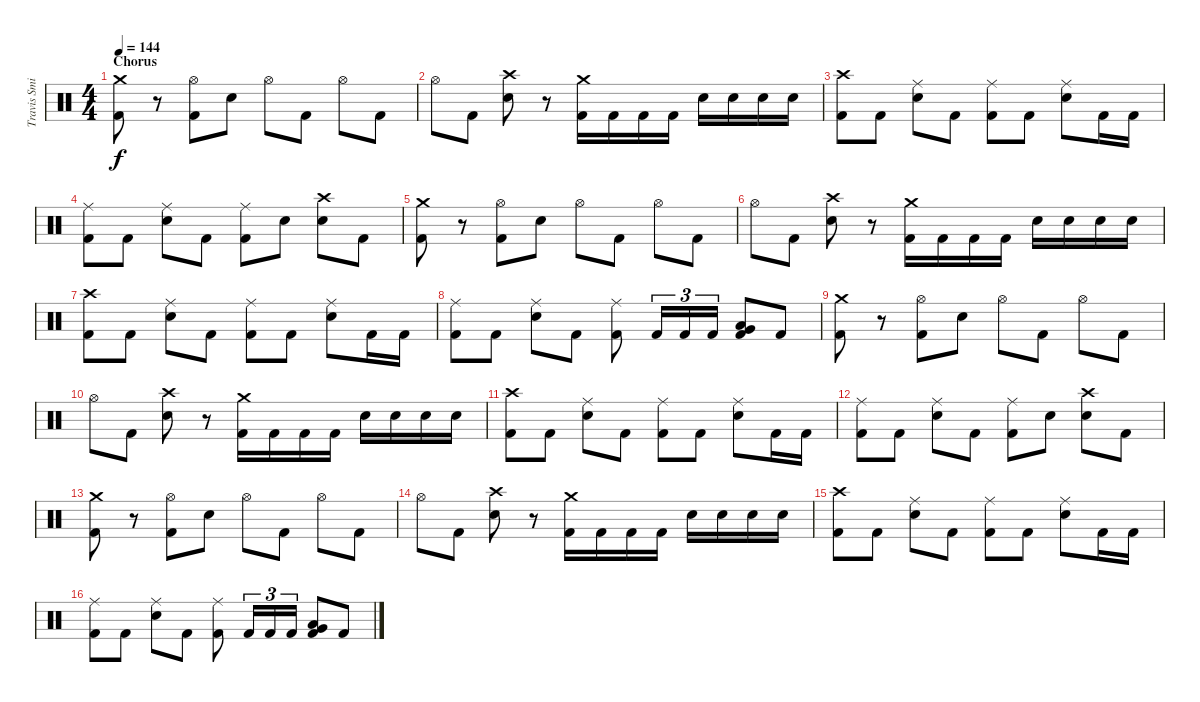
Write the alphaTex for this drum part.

\track ("Travis Smith" "Travis Smi") {instrument percussion}
\staff {score}
\articulation defaults
\ts (4 4)
\section ("" "Chorus")
\tempo 144
\clef neutral
\ks c
("Crash medium (hit)" "Kick (hit) 2").8{dy f} r.8 ("Hi-Hat (open)" "Kick (hit) 2").8 "Electric Snare (hit)".8 "Hi-Hat (open)".8 "Kick (hit) 2".8 "Hi-Hat (open)".8 "Kick (hit) 2".8 |
"Hi-Hat (open)".8 "Kick (hit) 2".8 ("Crash high (hit)" "Electric Snare (hit)").8 r.8 ("Crash medium (hit)" "Kick (hit) 2").16 "Kick (hit) 2".16 "Kick (hit) 2".16 "Kick (hit) 2".16 "Electric Snare (hit)".16 "Electric Snare (hit)".16 "Electric Snare (hit)".16 "Electric Snare (hit)".16 |
("Crash high (hit)" "Kick (hit) 2").8 "Kick (hit) 2".8 ("Ride (middle)" "Electric Snare (hit)").8 "Kick (hit) 2".8 ("Ride (middle)" "Kick (hit) 2").8 "Kick (hit) 2".8 ("Ride (middle)" "Electric Snare (hit)").8 "Kick (hit) 2".16 "Kick (hit) 2".16 |
("Ride (middle)" "Kick (hit) 2").8 "Kick (hit) 2".8 ("Ride (middle)" "Electric Snare (hit)").8 "Kick (hit) 2".8 ("Ride (middle)" "Kick (hit) 2").8 "Electric Snare (hit)".8 ("Crash high (hit)" "Electric Snare (hit)").8 "Kick (hit) 2".8 |
("Crash medium (hit)" "Kick (hit) 2").8 r.8 ("Hi-Hat (open)" "Kick (hit) 2").8 "Electric Snare (hit)".8 "Hi-Hat (open)".8 "Kick (hit) 2".8 "Hi-Hat (open)".8 "Kick (hit) 2".8 |
"Hi-Hat (open)".8 "Kick (hit) 2".8 ("Crash high (hit)" "Electric Snare (hit)").8 r.8 ("Crash medium (hit)" "Kick (hit) 2").16 "Kick (hit) 2".16 "Kick (hit) 2".16 "Kick (hit) 2".16 "Electric Snare (hit)".16 "Electric Snare (hit)".16 "Electric Snare (hit)".16 "Electric Snare (hit)".16 |
("Crash high (hit)" "Kick (hit) 2").8 "Kick (hit) 2".8 ("Ride (middle)" "Electric Snare (hit)").8 "Kick (hit) 2".8 ("Ride (middle)" "Kick (hit) 2").8 "Kick (hit) 2".8 ("Ride (middle)" "Electric Snare (hit)").8 "Kick (hit) 2".16 "Kick (hit) 2".16 |
("Ride (middle)" "Kick (hit) 2").8 "Kick (hit) 2".8 ("Ride (middle)" "Electric Snare (hit)").8 "Kick (hit) 2".8 ("Ride (middle)" "Kick (hit) 2").8 "Kick (hit) 2".16{tu (3 2)} "Kick (hit) 2".16{tu (3 2)} "Kick (hit) 2".16{tu (3 2)} ("Very Low Tom (hit)" "Low Floor Tom (hit)" "Kick (hit) 2").8 "Kick (hit) 2".8 |
("Crash medium (hit)" "Kick (hit) 2").8 r.8 ("Hi-Hat (open)" "Kick (hit) 2").8 "Electric Snare (hit)".8 "Hi-Hat (open)".8 "Kick (hit) 2".8 "Hi-Hat (open)".8 "Kick (hit) 2".8 |
"Hi-Hat (open)".8 "Kick (hit) 2".8 ("Crash high (hit)" "Electric Snare (hit)").8 r.8 ("Crash medium (hit)" "Kick (hit) 2").16 "Kick (hit) 2".16 "Kick (hit) 2".16 "Kick (hit) 2".16 "Electric Snare (hit)".16 "Electric Snare (hit)".16 "Electric Snare (hit)".16 "Electric Snare (hit)".16 |
("Crash high (hit)" "Kick (hit) 2").8 "Kick (hit) 2".8 ("Ride (middle)" "Electric Snare (hit)").8 "Kick (hit) 2".8 ("Ride (middle)" "Kick (hit) 2").8 "Kick (hit) 2".8 ("Ride (middle)" "Electric Snare (hit)").8 "Kick (hit) 2".16 "Kick (hit) 2".16 |
("Ride (middle)" "Kick (hit) 2").8 "Kick (hit) 2".8 ("Ride (middle)" "Electric Snare (hit)").8 "Kick (hit) 2".8 ("Ride (middle)" "Kick (hit) 2").8 "Electric Snare (hit)".8 ("Crash high (hit)" "Electric Snare (hit)").8 "Kick (hit) 2".8 |
("Crash medium (hit)" "Kick (hit) 2").8 r.8 ("Hi-Hat (open)" "Kick (hit) 2").8 "Electric Snare (hit)".8 "Hi-Hat (open)".8 "Kick (hit) 2".8 "Hi-Hat (open)".8 "Kick (hit) 2".8 |
"Hi-Hat (open)".8 "Kick (hit) 2".8 ("Crash high (hit)" "Electric Snare (hit)").8 r.8 ("Crash medium (hit)" "Kick (hit) 2").16 "Kick (hit) 2".16 "Kick (hit) 2".16 "Kick (hit) 2".16 "Electric Snare (hit)".16 "Electric Snare (hit)".16 "Electric Snare (hit)".16 "Electric Snare (hit)".16 |
("Crash high (hit)" "Kick (hit) 2").8 "Kick (hit) 2".8 ("Ride (middle)" "Electric Snare (hit)").8 "Kick (hit) 2".8 ("Ride (middle)" "Kick (hit) 2").8 "Kick (hit) 2".8 ("Ride (middle)" "Electric Snare (hit)").8 "Kick (hit) 2".16 "Kick (hit) 2".16 |
("Ride (middle)" "Kick (hit) 2").8 "Kick (hit) 2".8 ("Ride (middle)" "Electric Snare (hit)").8 "Kick (hit) 2".8 ("Ride (middle)" "Kick (hit) 2").8 "Kick (hit) 2".16{tu (3 2)} "Kick (hit) 2".16{tu (3 2)} "Kick (hit) 2".16{tu (3 2)} ("Very Low Tom (hit)" "Low Floor Tom (hit)" "Kick (hit) 2").8 "Kick (hit) 2".8
